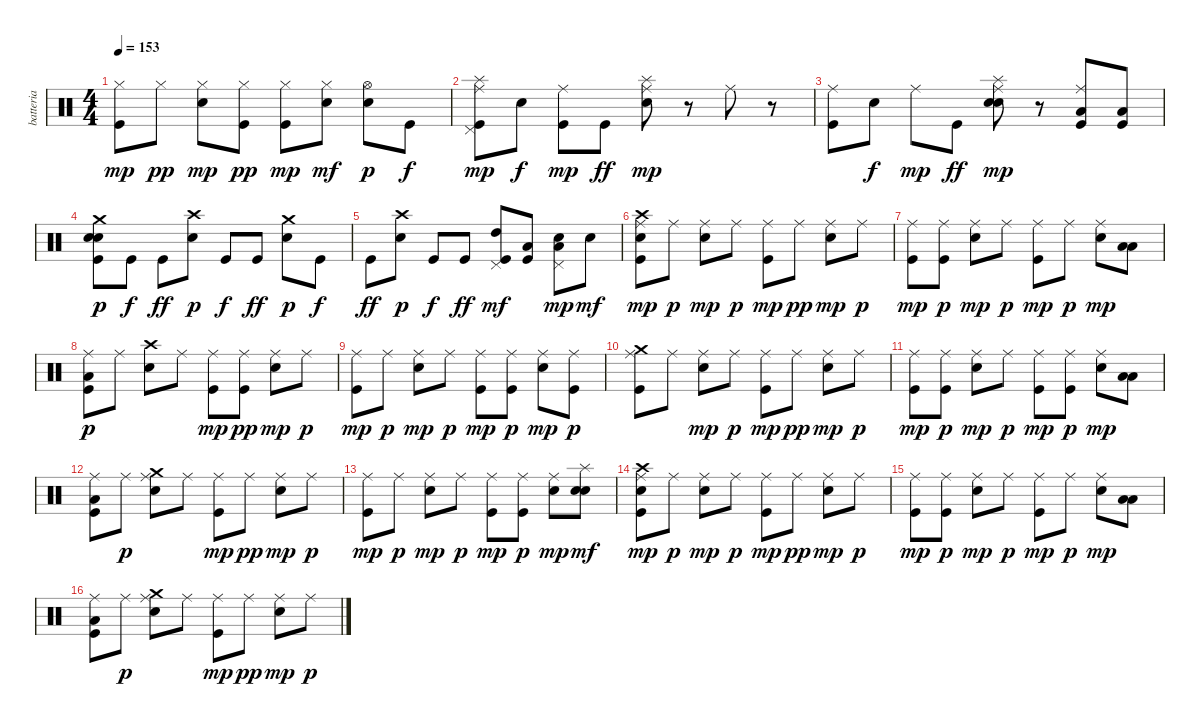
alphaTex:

\track ("batteria" "batteria") {instrument percussion}
\staff {score}
\articulation defaults
\ts (4 4)
\tempo 153
\clef neutral
\ks c
("Kick (hit)" "Hi-Hat (closed)").8{dy mp} "Hi-Hat (closed)".8{dy pp} ("Hi-Hat (closed)" "Electric Snare (hit)").8{dy mp} ("Kick (hit)" "Hi-Hat (closed)").8{dy pp} ("Kick (hit)" "Hi-Hat (closed)").8{dy mp} ("Hi-Hat (closed)" "Electric Snare (hit)").8{dy mf} ("Hi-Hat (open)" "Electric Snare (hit)").8{dy p} "Kick (hit)".8{dy f} |
("Kick (hit)" "Pedal Hi-Hat (hit)" "Ride (middle)" "Splash (hit)").8{dy mp} "Electric Snare (hit)".8{dy f} ("Kick (hit)" "Ride (middle)").8{dy mp} "Kick (hit)".8{dy ff} ("Ride (middle)" "Splash (hit)" "Electric Snare (hit)").8{dy mp} r.8 "Ride (middle)".8 r.8 |
("Kick (hit)" "Ride (middle)").8 "Electric Snare (hit)".8{dy f} "Ride (middle)".8{dy mp} "Kick (hit)".8{dy ff} ("Electric Snare (hit)" "Ride (middle)" "Splash (hit)" "Electric Snare (hit)").8{dy mp} r.8 ("Kick (hit)" "Low Tom (hit)" "Ride (middle)").8 ("Kick (hit)" "Low Tom (hit)").8 |
("Electric Snare (hit)" "Kick (hit)" "Crash medium (hit)" "Electric Snare (hit)").8{dy p} "Kick (hit)".8{dy f} "Kick (hit)".8{dy ff} ("Crash high (hit)" "Electric Snare (hit)").8{dy p} "Kick (hit)".8{dy f} "Kick (hit)".8{dy ff} ("Crash medium (hit)" "Electric Snare (hit)").8{dy p} "Kick (hit)".8{dy f} |
"Kick (hit)".8{dy ff} ("Crash high (hit)" "Electric Snare (hit)").8{dy p} "Kick (hit)".8{dy f} "Kick (hit)".8{dy ff} ("Kick (hit)" "Pedal Hi-Hat (hit)" "High Tom (hit)").8{dy mf} ("Kick (hit)" "Low Tom (hit)").8 ("Pedal Hi-Hat (hit)" "Low Tom (hit)" "Electric Snare (hit)").8{dy mp} "Electric Snare (hit)".8{dy mf} |
("Electric Snare (hit)" "Kick (hit)" "Crash high (hit)" "Ride (middle)").8{dy mp} "Ride (middle)".8{dy p} ("Ride (middle)" "Electric Snare (hit)").8{dy mp} "Ride (middle)".8{dy p} ("Kick (hit)" "Ride (middle)").8{dy mp} "Ride (middle)".8{dy pp} ("Ride (middle)" "Electric Snare (hit)").8{dy mp} "Ride (middle)".8{dy p} |
("Kick (hit)" "Ride (middle)").8{dy mp} ("Kick (hit)" "Ride (middle)").8{dy p} ("Ride (middle)" "Electric Snare (hit)").8{dy mp} "Ride (middle)".8{dy p} ("Kick (hit)" "Ride (middle)").8{dy mp} "Ride (middle)".8{dy p} ("Ride (middle)" "Electric Snare (hit)").8{dy mp} ("Low Tom (hit)" "Low Tom (hit)").8 |
("Kick (hit)" "Low Floor Tom (hit)" "Ride (middle)").8{dy p} "Ride (middle)".8 ("Crash high (hit)" "Electric Snare (hit)").8 "Ride (middle)".8 ("Kick (hit)" "Ride (middle)").8{dy mp} ("Kick (hit)" "Ride (middle)").8{dy pp} ("Ride (middle)" "Electric Snare (hit)").8{dy mp} "Ride (middle)".8{dy p} |
("Kick (hit)" "Ride (middle)").8{dy mp} "Ride (middle)".8{dy p} ("Ride (middle)" "Electric Snare (hit)").8{dy mp} "Ride (middle)".8{dy p} ("Kick (hit)" "Ride (middle)").8{dy mp} ("Kick (hit)" "Ride (middle)").8{dy p} ("Ride (middle)" "Electric Snare (hit)").8{dy mp} ("Kick (hit)" "Ride (middle)").8{dy p} |
("Kick (hit)" "Ride (middle)" "Crash medium (hit)").8 "Ride (middle)".8 ("Ride (middle)" "Electric Snare (hit)").8{dy mp} "Ride (middle)".8{dy p} ("Kick (hit)" "Ride (middle)").8{dy mp} "Ride (middle)".8{dy pp} ("Ride (middle)" "Electric Snare (hit)").8{dy mp} "Ride (middle)".8{dy p} |
("Kick (hit)" "Ride (middle)").8{dy mp} ("Kick (hit)" "Ride (middle)").8{dy p} ("Ride (middle)" "Electric Snare (hit)").8{dy mp} "Ride (middle)".8{dy p} ("Kick (hit)" "Ride (middle)").8{dy mp} ("Kick (hit)" "Ride (middle)").8{dy p} ("Ride (middle)" "Electric Snare (hit)").8{dy mp} ("Low Tom (hit)" "Low Tom (hit)").8 |
("Kick (hit)" "Low Floor Tom (hit)" "Ride (middle)").8 "Ride (middle)".8{dy p} ("Ride (middle)" "Crash medium (hit)" "Electric Snare (hit)").8 "Ride (middle)".8 ("Kick (hit)" "Ride (middle)").8{dy mp} "Ride (middle)".8{dy pp} ("Ride (middle)" "Electric Snare (hit)").8{dy mp} "Ride (middle)".8{dy p} |
("Kick (hit)" "Ride (middle)").8{dy mp} "Ride (middle)".8{dy p} ("Ride (middle)" "Electric Snare (hit)").8{dy mp} "Ride (middle)".8{dy p} ("Kick (hit)" "Ride (middle)").8{dy mp} ("Kick (hit)" "Ride (middle)").8{dy p} ("Ride (middle)" "Electric Snare (hit)").8{dy mp} ("Electric Snare (hit)" "Splash (hit)" "Electric Snare (hit)").8{dy mf} |
("Electric Snare (hit)" "Kick (hit)" "Crash high (hit)" "Ride (middle)").8{dy mp} "Ride (middle)".8{dy p} ("Ride (middle)" "Electric Snare (hit)").8{dy mp} "Ride (middle)".8{dy p} ("Kick (hit)" "Ride (middle)").8{dy mp} "Ride (middle)".8{dy pp} ("Ride (middle)" "Electric Snare (hit)").8{dy mp} "Ride (middle)".8{dy p} |
("Kick (hit)" "Ride (middle)").8{dy mp} ("Kick (hit)" "Ride (middle)").8{dy p} ("Ride (middle)" "Electric Snare (hit)").8{dy mp} "Ride (middle)".8{dy p} ("Kick (hit)" "Ride (middle)").8{dy mp} "Ride (middle)".8{dy p} ("Ride (middle)" "Electric Snare (hit)").8{dy mp} ("Low Tom (hit)" "Low Tom (hit)").8 |
("Kick (hit)" "Low Floor Tom (hit)" "Ride (middle)").8 "Ride (middle)".8{dy p} ("Ride (middle)" "Crash medium (hit)" "Electric Snare (hit)").8 "Ride (middle)".8 ("Kick (hit)" "Ride (middle)").8{dy mp} "Ride (middle)".8{dy pp} ("Ride (middle)" "Electric Snare (hit)").8{dy mp} "Ride (middle)".8{dy p}
